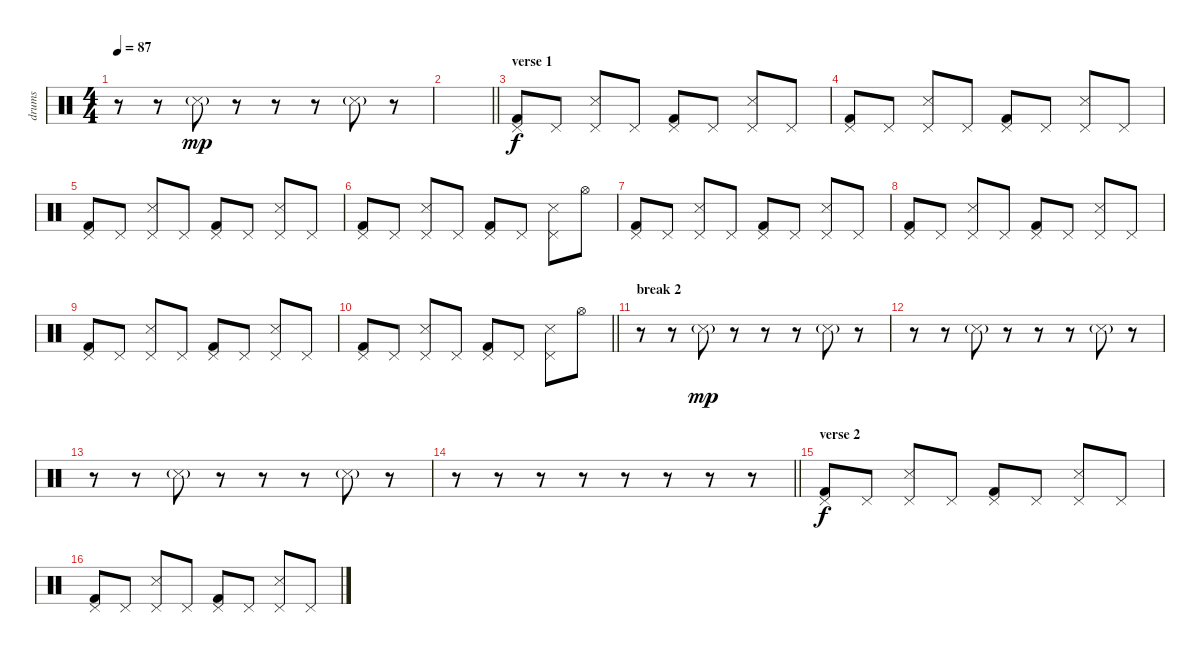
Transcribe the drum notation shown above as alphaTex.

\track ("drums" "drums") {instrument percussion}
\staff {score}
\articulation defaults
\ts (4 4)
\tempo 87
\clef neutral
\ks c
r.8{dy mp} r.8 "Snare (side stick) 3"{g}.8 r.8 r.8 r.8 "Snare (side stick) 3"{g}.8{volume 16} r.8 |
\barLineRight lightlight
|
\section ("" "verse 1")
("Kick (hit) 2" "Pedal Hi-Hat (hit)").8{dy f} "Pedal Hi-Hat (hit)".8 ("Snare (side stick) 3" "Pedal Hi-Hat (hit)").8 "Pedal Hi-Hat (hit)".8 ("Kick (hit) 2" "Pedal Hi-Hat (hit)").8 "Pedal Hi-Hat (hit)".8 ("Snare (side stick) 3" "Pedal Hi-Hat (hit)").8 "Pedal Hi-Hat (hit)".8 |
("Kick (hit) 2" "Pedal Hi-Hat (hit)").8 "Pedal Hi-Hat (hit)".8 ("Snare (side stick) 3" "Pedal Hi-Hat (hit)").8 "Pedal Hi-Hat (hit)".8 ("Kick (hit) 2" "Pedal Hi-Hat (hit)").8 "Pedal Hi-Hat (hit)".8 ("Snare (side stick) 3" "Pedal Hi-Hat (hit)").8 "Pedal Hi-Hat (hit)".8 |
("Kick (hit) 2" "Pedal Hi-Hat (hit)").8 "Pedal Hi-Hat (hit)".8 ("Snare (side stick) 3" "Pedal Hi-Hat (hit)").8 "Pedal Hi-Hat (hit)".8 ("Kick (hit) 2" "Pedal Hi-Hat (hit)").8 "Pedal Hi-Hat (hit)".8 ("Snare (side stick) 3" "Pedal Hi-Hat (hit)").8 "Pedal Hi-Hat (hit)".8 |
("Kick (hit) 2" "Pedal Hi-Hat (hit)").8 "Pedal Hi-Hat (hit)".8 ("Snare (side stick) 3" "Pedal Hi-Hat (hit)").8 "Pedal Hi-Hat (hit)".8 ("Kick (hit) 2" "Pedal Hi-Hat (hit)").8 "Pedal Hi-Hat (hit)".8 ("Snare (side stick) 3" "Pedal Hi-Hat (hit)").8 "Hi-Hat (open)".8 |
("Kick (hit) 2" "Pedal Hi-Hat (hit)").8 "Pedal Hi-Hat (hit)".8 ("Snare (side stick) 3" "Pedal Hi-Hat (hit)").8 "Pedal Hi-Hat (hit)".8 ("Kick (hit) 2" "Pedal Hi-Hat (hit)").8 "Pedal Hi-Hat (hit)".8 ("Snare (side stick) 3" "Pedal Hi-Hat (hit)").8 "Pedal Hi-Hat (hit)".8 |
("Kick (hit) 2" "Pedal Hi-Hat (hit)").8 "Pedal Hi-Hat (hit)".8 ("Snare (side stick) 3" "Pedal Hi-Hat (hit)").8 "Pedal Hi-Hat (hit)".8 ("Kick (hit) 2" "Pedal Hi-Hat (hit)").8 "Pedal Hi-Hat (hit)".8 ("Snare (side stick) 3" "Pedal Hi-Hat (hit)").8 "Pedal Hi-Hat (hit)".8 |
("Kick (hit) 2" "Pedal Hi-Hat (hit)").8 "Pedal Hi-Hat (hit)".8 ("Snare (side stick) 3" "Pedal Hi-Hat (hit)").8 "Pedal Hi-Hat (hit)".8 ("Kick (hit) 2" "Pedal Hi-Hat (hit)").8 "Pedal Hi-Hat (hit)".8 ("Snare (side stick) 3" "Pedal Hi-Hat (hit)").8 "Pedal Hi-Hat (hit)".8 |
\barLineRight lightlight
("Kick (hit) 2" "Pedal Hi-Hat (hit)").8 "Pedal Hi-Hat (hit)".8 ("Snare (side stick) 3" "Pedal Hi-Hat (hit)").8 "Pedal Hi-Hat (hit)".8 ("Kick (hit) 2" "Pedal Hi-Hat (hit)").8 "Pedal Hi-Hat (hit)".8 ("Snare (side stick) 3" "Pedal Hi-Hat (hit)").8 "Hi-Hat (open)".8 |
\section ("" "break 2")
r.8{volume 6} r.8 "Snare (side stick) 3"{g}.8{dy mp} r.8 r.8 r.8 "Snare (side stick) 3"{g}.8 r.8 |
r.8 r.8 "Snare (side stick) 3"{g}.8 r.8 r.8 r.8 "Snare (side stick) 3"{g}.8 r.8 |
r.8 r.8 "Snare (side stick) 3"{g}.8 r.8 r.8 r.8 "Snare (side stick) 3"{g}.8 r.8 |
\barLineRight lightlight
r.8 r.8 r.8 r.8 r.8 r.8 r.8{volume 16} r.8 |
\section ("" "verse 2")
("Kick (hit) 2" "Pedal Hi-Hat (hit)").8{dy f} "Pedal Hi-Hat (hit)".8 ("Snare (side stick) 3" "Pedal Hi-Hat (hit)").8 "Pedal Hi-Hat (hit)".8 ("Kick (hit) 2" "Pedal Hi-Hat (hit)").8 "Pedal Hi-Hat (hit)".8 ("Snare (side stick) 3" "Pedal Hi-Hat (hit)").8 "Pedal Hi-Hat (hit)".8 |
("Kick (hit) 2" "Pedal Hi-Hat (hit)").8 "Pedal Hi-Hat (hit)".8 ("Snare (side stick) 3" "Pedal Hi-Hat (hit)").8 "Pedal Hi-Hat (hit)".8 ("Kick (hit) 2" "Pedal Hi-Hat (hit)").8 "Pedal Hi-Hat (hit)".8 ("Snare (side stick) 3" "Pedal Hi-Hat (hit)").8 "Pedal Hi-Hat (hit)".8
